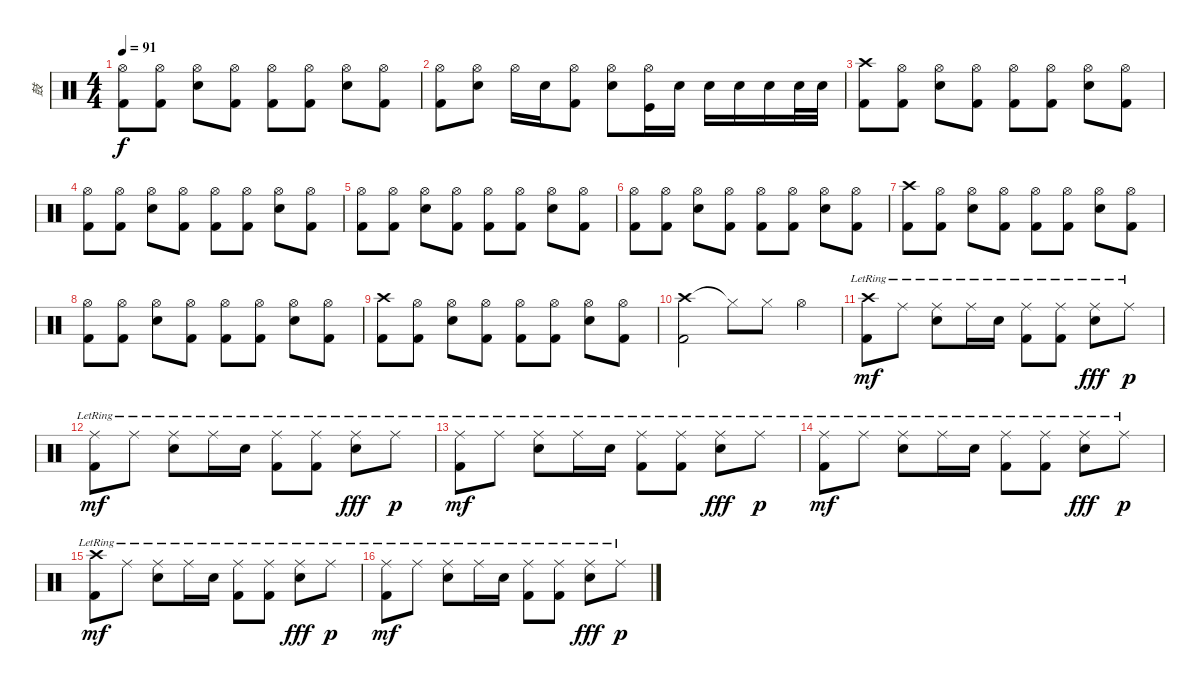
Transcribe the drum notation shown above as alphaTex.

\track ("鼓" "鼓") {instrument percussion}
\staff {score}
\articulation defaults
\ts (4 4)
\tempo 91
\clef neutral
\ks c
("Hi-Hat (open)" "Kick (hit) 2").8{dy f} ("Hi-Hat (open)" "Kick (hit) 2").8 ("Hi-Hat (open)" "Electric Snare (hit)").8 ("Hi-Hat (open)" "Kick (hit) 2").8 ("Hi-Hat (open)" "Kick (hit) 2").8 ("Hi-Hat (open)" "Kick (hit) 2").8 ("Hi-Hat (open)" "Electric Snare (hit)").8 ("Hi-Hat (open)" "Kick (hit) 2").8 |
("Hi-Hat (open)" "Kick (hit) 2").8 ("Hi-Hat (open)" "Electric Snare (hit)").8 "Hi-Hat (open)".16 "Electric Snare (hit)".16 ("Hi-Hat (open)" "Kick (hit) 2").8 ("Hi-Hat (open)" "Electric Snare (hit)").8 ("Hi-Hat (open)" "Kick (hit)").16 "Electric Snare (hit)".16 "Electric Snare (hit)".16 "Electric Snare (hit)".16 "Electric Snare (hit)".16 "Electric Snare (hit)".32 "Electric Snare (hit)".32 |
("Crash high (hit)" "Kick (hit) 2").8 ("Hi-Hat (open)" "Kick (hit) 2").8 ("Hi-Hat (open)" "Electric Snare (hit)").8 ("Hi-Hat (open)" "Kick (hit) 2").8 ("Hi-Hat (open)" "Kick (hit) 2").8 ("Hi-Hat (open)" "Kick (hit) 2").8 ("Hi-Hat (open)" "Electric Snare (hit)").8 ("Hi-Hat (open)" "Kick (hit) 2").8 |
("Hi-Hat (open)" "Kick (hit) 2").8 ("Hi-Hat (open)" "Kick (hit) 2").8 ("Hi-Hat (open)" "Electric Snare (hit)").8 ("Hi-Hat (open)" "Kick (hit) 2").8 ("Hi-Hat (open)" "Kick (hit) 2").8 ("Hi-Hat (open)" "Kick (hit) 2").8 ("Hi-Hat (open)" "Electric Snare (hit)").8 ("Hi-Hat (open)" "Kick (hit) 2").8 |
("Hi-Hat (open)" "Kick (hit) 2").8 ("Hi-Hat (open)" "Kick (hit) 2").8 ("Hi-Hat (open)" "Electric Snare (hit)").8 ("Hi-Hat (open)" "Kick (hit) 2").8 ("Hi-Hat (open)" "Kick (hit) 2").8 ("Hi-Hat (open)" "Kick (hit) 2").8 ("Hi-Hat (open)" "Electric Snare (hit)").8 ("Hi-Hat (open)" "Kick (hit) 2").8 |
("Hi-Hat (open)" "Kick (hit) 2").8 ("Hi-Hat (open)" "Kick (hit) 2").8 ("Hi-Hat (open)" "Electric Snare (hit)").8 ("Hi-Hat (open)" "Kick (hit) 2").8 ("Hi-Hat (open)" "Kick (hit) 2").8 ("Hi-Hat (open)" "Kick (hit) 2").8 ("Hi-Hat (open)" "Electric Snare (hit)").8 ("Hi-Hat (open)" "Kick (hit) 2").8 |
("Crash high (hit)" "Kick (hit) 2").8 ("Hi-Hat (open)" "Kick (hit) 2").8 ("Hi-Hat (open)" "Electric Snare (hit)").8 ("Hi-Hat (open)" "Kick (hit) 2").8 ("Hi-Hat (open)" "Kick (hit) 2").8 ("Hi-Hat (open)" "Kick (hit) 2").8 ("Hi-Hat (open)" "Electric Snare (hit)").8 ("Hi-Hat (open)" "Kick (hit) 2").8 |
("Hi-Hat (open)" "Kick (hit) 2").8 ("Hi-Hat (open)" "Kick (hit) 2").8 ("Hi-Hat (open)" "Electric Snare (hit)").8 ("Hi-Hat (open)" "Kick (hit) 2").8 ("Hi-Hat (open)" "Kick (hit) 2").8 ("Hi-Hat (open)" "Kick (hit) 2").8 ("Hi-Hat (open)" "Electric Snare (hit)").8 ("Hi-Hat (open)" "Kick (hit) 2").8 |
("Crash high (hit)" "Kick (hit) 2").8 ("Hi-Hat (open)" "Kick (hit) 2").8 ("Hi-Hat (open)" "Electric Snare (hit)").8 ("Hi-Hat (open)" "Kick (hit) 2").8 ("Hi-Hat (open)" "Kick (hit) 2").8 ("Hi-Hat (open)" "Kick (hit) 2").8 ("Hi-Hat (open)" "Electric Snare (hit)").8 ("Hi-Hat (open)" "Kick (hit) 2").8 |
("Crash high (hit)" "Kick (hit) 2").2 "Hi-Hat (closed)"{t}.8 "Hi-Hat (closed)".8 "Hi-Hat (open)".4 |
("Crash high (hit)"{lr} "Kick (hit) 2"{lr}).8{dy mf} "Ride (middle)"{lr}.8 ("Ride (middle)"{lr} "Electric Snare (hit)"{lr}).8 "Ride (middle)"{lr}.16 "Electric Snare (hit)"{lr}.16 ("Ride (middle)"{lr} "Kick (hit) 2").8 ("Ride (middle)"{lr} "Kick (hit) 2"{lr}).8 ("Ride (middle)"{lr} "Electric Snare (hit)"{lr}).8{dy fff} "Ride (middle)"{lr}.8{dy p} |
("Ride (middle)"{lr} "Kick (hit) 2"{lr}).8{dy mf} "Ride (middle)"{lr}.8 ("Ride (middle)"{lr} "Electric Snare (hit)"{lr}).8 "Ride (middle)"{lr}.16 "Electric Snare (hit)"{lr}.16 ("Ride (middle)"{lr} "Kick (hit) 2").8 ("Ride (middle)"{lr} "Kick (hit) 2"{lr}).8 ("Ride (middle)"{lr} "Electric Snare (hit)"{lr}).8{dy fff} "Ride (middle)"{lr}.8{dy p} |
("Ride (middle)"{lr} "Kick (hit) 2"{lr}).8{dy mf} "Ride (middle)"{lr}.8 ("Ride (middle)"{lr} "Electric Snare (hit)"{lr}).8 "Ride (middle)"{lr}.16 "Electric Snare (hit)"{lr}.16 ("Ride (middle)"{lr} "Kick (hit) 2").8 ("Ride (middle)"{lr} "Kick (hit) 2"{lr}).8 ("Ride (middle)"{lr} "Electric Snare (hit)"{lr}).8{dy fff} "Ride (middle)"{lr}.8{dy p} |
("Ride (middle)"{lr} "Kick (hit) 2"{lr}).8{dy mf} "Ride (middle)"{lr}.8 ("Ride (middle)"{lr} "Electric Snare (hit)"{lr}).8 "Ride (middle)"{lr}.16 "Electric Snare (hit)"{lr}.16 ("Ride (middle)"{lr} "Kick (hit) 2").8 ("Ride (middle)"{lr} "Kick (hit) 2"{lr}).8 ("Ride (middle)"{lr} "Electric Snare (hit)"{lr}).8{dy fff} "Ride (middle)"{lr}.8{dy p} |
("Crash high (hit)"{lr} "Kick (hit) 2"{lr}).8{dy mf} "Ride (middle)"{lr}.8 ("Ride (middle)"{lr} "Electric Snare (hit)"{lr}).8 "Ride (middle)"{lr}.16 "Electric Snare (hit)"{lr}.16 ("Ride (middle)"{lr} "Kick (hit) 2").8 ("Ride (middle)"{lr} "Kick (hit) 2"{lr}).8 ("Ride (middle)"{lr} "Electric Snare (hit)"{lr}).8{dy fff} "Ride (middle)"{lr}.8{dy p} |
("Ride (middle)"{lr} "Kick (hit) 2"{lr}).8{dy mf} "Ride (middle)"{lr}.8 ("Ride (middle)"{lr} "Electric Snare (hit)"{lr}).8 "Ride (middle)"{lr}.16 "Electric Snare (hit)"{lr}.16 ("Ride (middle)"{lr} "Kick (hit) 2").8 ("Ride (middle)"{lr} "Kick (hit) 2"{lr}).8 ("Ride (middle)"{lr} "Electric Snare (hit)"{lr}).8{dy fff} "Ride (middle)"{lr}.8{dy p}
